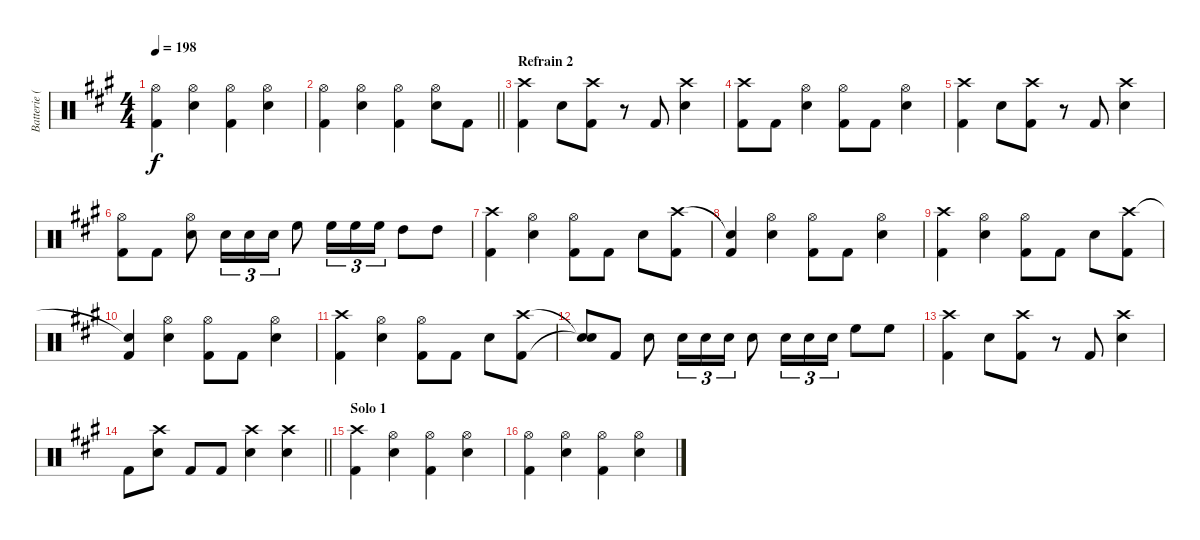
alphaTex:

\track ("Batterie (Phil Roud)" "Batterie (") {instrument percussion}
\staff {score}
\articulation defaults
\ts (4 4)
\tempo 198
\clef neutral
\ks a
("Hi-Hat (open)" "Kick (hit) 2").4{dy f} ("Hi-Hat (open)" "Snare (hit) 2").4 ("Hi-Hat (open)" "Kick (hit) 2").4 ("Hi-Hat (open)" "Snare (hit) 2").4 |
\barLineRight lightlight
("Hi-Hat (open)" "Kick (hit) 2").4 ("Hi-Hat (open)" "Snare (hit) 2").4 ("Hi-Hat (open)" "Kick (hit) 2").4 ("Hi-Hat (open)" "Snare (hit) 2").8 "Kick (hit) 2".8 |
\section ("" "Refrain 2")
("Crash high (hit)" "Kick (hit) 2").4 "Snare (hit) 2".8 ("Crash high (hit)" "Kick (hit) 2").8 r.8 "Kick (hit) 2".8 ("Crash high (hit)" "Snare (hit) 2").4 |
("Crash high (hit)" "Kick (hit) 2").8 "Kick (hit) 2".8 ("Hi-Hat (open)" "Snare (hit) 2").4 ("Hi-Hat (open)" "Kick (hit) 2").8 "Kick (hit) 2".8 ("Hi-Hat (open)" "Snare (hit) 2").4 |
("Crash high (hit)" "Kick (hit) 2").4 "Snare (hit) 2".8 ("Crash high (hit)" "Kick (hit) 2").8 r.8 "Kick (hit) 2".8 ("Crash high (hit)" "Snare (hit) 2").4 |
("Hi-Hat (open)" "Kick (hit) 2").8 "Kick (hit) 2".8 ("Hi-Hat (open)" "Snare (hit) 2").8 "Snare (hit) 2".16{tu (3 2)} "Snare (hit) 2".16{tu (3 2)} "Snare (hit) 2".16{tu (3 2)} "High Floor Tom (hit)".8 "High Floor Tom (hit)".16{tu (3 2)} "High Floor Tom (hit)".16{tu (3 2)} "High Floor Tom (hit)".16{tu (3 2)} "High Tom (hit)".8 "High Tom (hit)".8 |
("Crash high (hit)" "Kick (hit) 2").4 ("Hi-Hat (open)" "Snare (hit) 2").4 ("Hi-Hat (open)" "Kick (hit) 2").8 "Kick (hit) 2".8 "Snare (hit) 2".8 ("Crash high (hit)" "Kick (hit) 2").8 |
("Snare (hit)"{t} "Kick (hit) 2").4 ("Hi-Hat (open)" "Snare (hit) 2").4 ("Hi-Hat (open)" "Kick (hit) 2").8 "Kick (hit) 2".8 ("Hi-Hat (open)" "Snare (hit) 2").4 |
("Crash high (hit)" "Kick (hit) 2").4 ("Hi-Hat (open)" "Snare (hit) 2").4 ("Hi-Hat (open)" "Kick (hit) 2").8 "Kick (hit) 2".8 "Snare (hit) 2".8 ("Crash high (hit)" "Kick (hit) 2").8 |
("Snare (hit)"{t} "Kick (hit) 2").4 ("Hi-Hat (open)" "Snare (hit) 2").4 ("Hi-Hat (open)" "Kick (hit) 2").8 "Kick (hit) 2".8 ("Hi-Hat (open)" "Snare (hit) 2").4 |
("Crash high (hit)" "Kick (hit) 2").4 ("Hi-Hat (open)" "Snare (hit) 2").4 ("Hi-Hat (open)" "Kick (hit) 2").8 "Kick (hit) 2".8 "Snare (hit) 2".8 ("Crash high (hit)" "Kick (hit) 2").8 |
("Snare (hit)"{t} "Snare (hit)"{t}).8 "Kick (hit) 2".8 "Snare (hit) 2".8 "Snare (hit) 2".16{tu (3 2)} "Snare (hit) 2".16{tu (3 2)} "Snare (hit) 2".16{tu (3 2)} "Snare (hit) 2".8 "Snare (hit) 2".16{tu (3 2)} "Snare (hit) 2".16{tu (3 2)} "Snare (hit) 2".16{tu (3 2)} "High Floor Tom (hit)".8 "High Floor Tom (hit)".8 |
("Crash high (hit)" "Kick (hit) 2").4 "Snare (hit) 2".8 ("Crash high (hit)" "Kick (hit) 2").8 r.8 "Kick (hit) 2".8 ("Crash high (hit)" "Snare (hit) 2").4 |
\barLineRight lightlight "Kick (hit) 2".8
("Crash high (hit)" "Snare (hit) 2").8 "Kick (hit) 2".8 "Kick (hit) 2".8 ("Crash high (hit)" "Snare (hit) 2").4 ("Crash high (hit)" "Snare (hit) 2").4 |
\section ("" "Solo 1")
("Crash high (hit)" "Kick (hit) 2").4 ("Hi-Hat (open)" "Snare (hit) 2").4 ("Hi-Hat (open)" "Kick (hit) 2").4 ("Hi-Hat (open)" "Snare (hit) 2").4 |
("Hi-Hat (open)" "Kick (hit) 2").4 ("Hi-Hat (open)" "Snare (hit) 2").4 ("Hi-Hat (open)" "Kick (hit) 2").4 ("Hi-Hat (open)" "Snare (hit) 2").4
